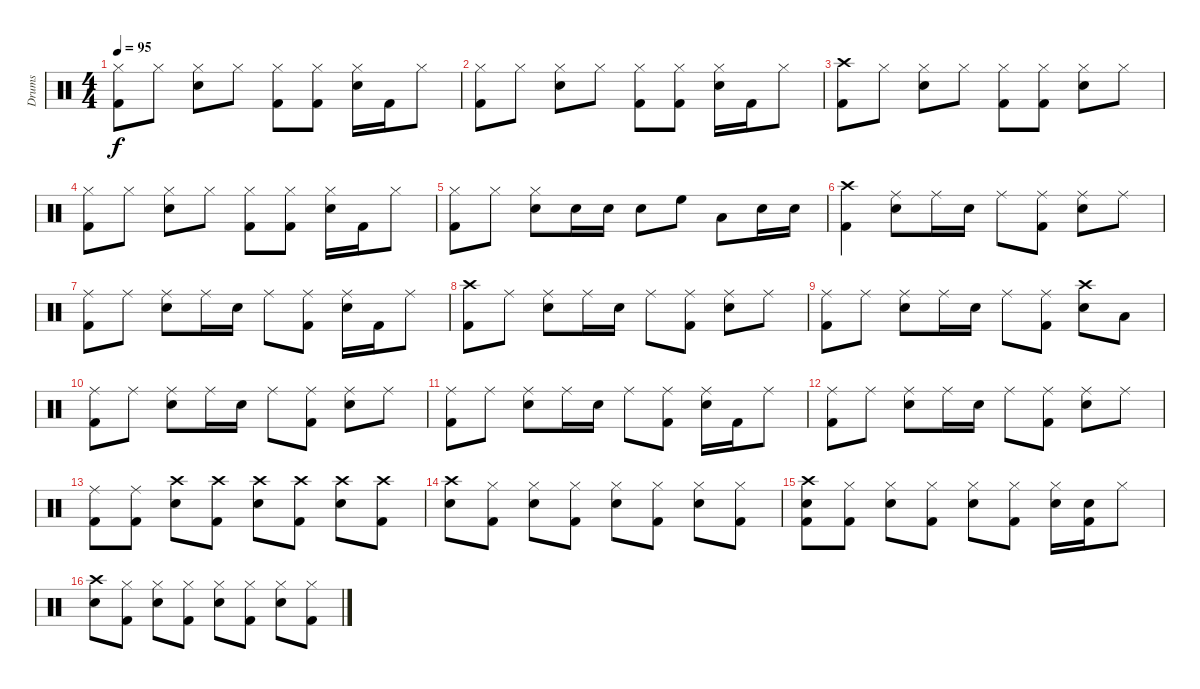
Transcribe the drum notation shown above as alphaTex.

\track ("Drums" "Drums") {instrument percussion}
\staff {score}
\articulation defaults
\ts (4 4)
\tempo 95
\clef neutral
\ks c
("Kick (hit) 2" "Hi-Hat (closed)").8{dy f} "Hi-Hat (closed)".8 ("Snare (hit) 2" "Hi-Hat (closed)").8 "Hi-Hat (closed)".8 ("Kick (hit) 2" "Hi-Hat (closed)").8 ("Kick (hit) 2" "Hi-Hat (closed)").8 ("Snare (hit) 2" "Hi-Hat (closed)").16 "Kick (hit) 2".16 "Hi-Hat (closed)".8 |
("Kick (hit) 2" "Hi-Hat (closed)").8 "Hi-Hat (closed)".8 ("Snare (hit) 2" "Hi-Hat (closed)").8 "Hi-Hat (closed)".8 ("Kick (hit) 2" "Hi-Hat (closed)").8 ("Kick (hit) 2" "Hi-Hat (closed)").8 ("Snare (hit) 2" "Hi-Hat (closed)").16 "Kick (hit) 2".16 "Hi-Hat (closed)".8 |
("Crash high (hit)" "Kick (hit) 2").8 "Hi-Hat (closed)".8 ("Hi-Hat (closed)" "Snare (hit) 2").8 "Hi-Hat (closed)".8 ("Hi-Hat (closed)" "Kick (hit) 2").8 ("Hi-Hat (closed)" "Kick (hit) 2").8 ("Hi-Hat (closed)" "Snare (hit) 2").8 "Hi-Hat (closed)".8 |
("Kick (hit) 2" "Hi-Hat (closed)").8 "Hi-Hat (closed)".8 ("Snare (hit) 2" "Hi-Hat (closed)").8 "Hi-Hat (closed)".8 ("Kick (hit) 2" "Hi-Hat (closed)").8 ("Kick (hit) 2" "Hi-Hat (closed)").8 ("Snare (hit) 2" "Hi-Hat (closed)").16 "Kick (hit) 2".16 "Hi-Hat (closed)".8 |
("Hi-Hat (closed)" "Kick (hit) 2").8 "Hi-Hat (closed)".8 ("Hi-Hat (closed)" "Snare (hit) 2").8 "Snare (hit) 2".16 "Snare (hit) 2".16 "Snare (hit) 2".8 "High Floor Tom (hit)".8 "Low Tom (hit)".8 "Snare (hit) 2".16 "Snare (hit) 2".16 |
("Crash high (hit)" "Kick (hit) 2").4 ("Snare (hit) 2" "Ride (middle)").8 "Ride (middle)".16 "Snare (hit) 2".16 "Ride (middle)".8 ("Kick (hit) 2" "Ride (middle)").8 ("Snare (hit) 2" "Ride (middle)").8 "Ride (middle)".8 |
("Ride (middle)" "Kick (hit) 2").8 "Ride (middle)".8 ("Snare (hit) 2" "Ride (middle)").8 "Ride (middle)".16 "Snare (hit) 2".16 "Ride (middle)".8 ("Kick (hit) 2" "Ride (middle)").8 ("Ride (middle)" "Snare (hit) 2").16 "Kick (hit) 2".16 "Ride (middle)".8 |
("Crash high (hit)" "Kick (hit) 2").8 "Ride (middle)".8 ("Snare (hit) 2" "Ride (middle)").8 "Ride (middle)".16 "Snare (hit) 2".16 "Ride (middle)".8 ("Ride (middle)" "Kick (hit) 2").8 ("Ride (middle)" "Snare (hit) 2").8 "Ride (middle)".8 |
("Kick (hit) 2" "Ride (middle)").8 "Ride (middle)".8 ("Snare (hit) 2" "Ride (middle)").8 "Ride (middle)".16 "Snare (hit) 2".16 "Ride (middle)".8 ("Kick (hit) 2" "Ride (middle)").8 ("Crash high (hit)" "Snare (hit) 2").8 "Low Floor Tom (hit)".8 |
("Kick (hit) 2" "Ride (middle)").8 "Ride (middle)".8 ("Snare (hit) 2" "Ride (middle)").8 "Ride (middle)".16 "Snare (hit) 2".16 "Ride (middle)".8 ("Ride (middle)" "Kick (hit) 2").8 ("Ride (middle)" "Snare (hit) 2").8 "Ride (middle)".8 |
("Kick (hit) 2" "Ride (middle)").8 "Ride (middle)".8 ("Snare (hit) 2" "Ride (middle)").8 "Ride (middle)".16 "Snare (hit) 2".16 "Ride (middle)".8 ("Kick (hit) 2" "Ride (middle)").8 ("Snare (hit) 2" "Ride (middle)").16 "Kick (hit) 2".16 "Ride (middle)".8 |
("Kick (hit) 2" "Ride (middle)").8 "Ride (middle)".8 ("Snare (hit) 2" "Ride (middle)").8 "Ride (middle)".16 "Snare (hit) 2".16 "Ride (middle)".8 ("Ride (middle)" "Kick (hit) 2").8 ("Ride (middle)" "Snare (hit) 2").8 "Ride (middle)".8 |
("Kick (hit) 2" "Ride (middle)").8 ("Kick (hit) 2" "Ride (middle)").8 ("Snare (hit) 2" "Crash high (hit)").8 ("Kick (hit) 2" "Crash high (hit)").8 ("Crash high (hit)" "Snare (hit) 2").8 ("Crash high (hit)" "Kick (hit) 2").8 ("Crash high (hit)" "Snare (hit) 2").8 ("Crash high (hit)" "Kick (hit) 2").8 |
("Crash high (hit)" "Snare (hit) 2").8 ("Kick (hit) 2" "Hi-Hat (closed)").8 ("Hi-Hat (closed)" "Snare (hit) 2").8 ("Hi-Hat (closed)" "Kick (hit) 2").8 ("Hi-Hat (closed)" "Snare (hit) 2").8 ("Hi-Hat (closed)" "Kick (hit) 2").8 ("Hi-Hat (closed)" "Snare (hit) 2").8 ("Hi-Hat (closed)" "Kick (hit) 2").8 |
("Kick (hit) 2" "Crash high (hit)" "Snare (hit) 2").8 ("Kick (hit) 2" "Hi-Hat (closed)").8 ("Snare (hit) 2" "Hi-Hat (closed)").8 ("Kick (hit) 2" "Hi-Hat (closed)").8 ("Snare (hit) 2" "Hi-Hat (closed)").8 ("Kick (hit) 2" "Hi-Hat (closed)").8 ("Snare (hit) 2" "Hi-Hat (closed)").16 ("Kick (hit) 2" "Snare (hit)").16 "Hi-Hat (closed)".8 |
("Crash high (hit)" "Snare (hit) 2").8 ("Kick (hit) 2" "Hi-Hat (closed)").8 ("Hi-Hat (closed)" "Snare (hit) 2").8 ("Hi-Hat (closed)" "Kick (hit) 2").8 ("Hi-Hat (closed)" "Snare (hit) 2").8 ("Hi-Hat (closed)" "Kick (hit) 2").8 ("Hi-Hat (closed)" "Snare (hit) 2").8 ("Hi-Hat (closed)" "Kick (hit) 2").8
